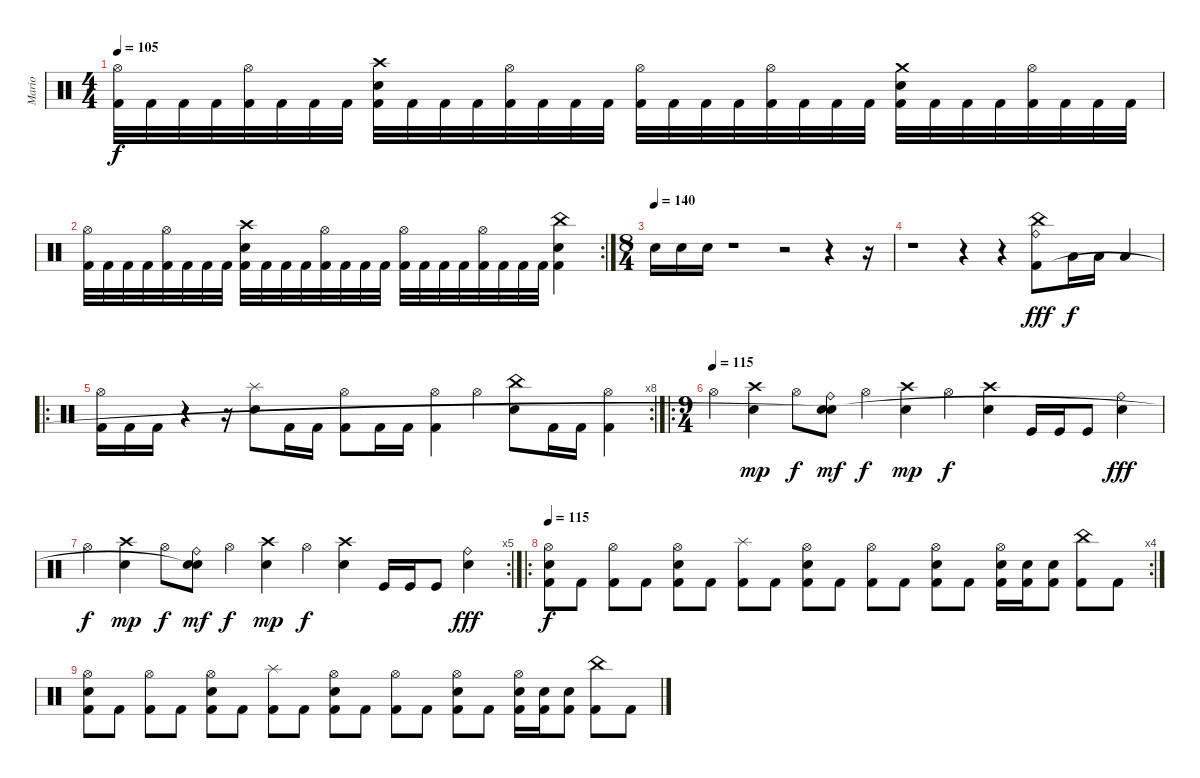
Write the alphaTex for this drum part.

\track ("Mario" "Mario") {instrument percussion}
\staff {score}
\articulation defaults
\ts (4 4)
\tempo 105
\clef neutral
\ks c
("Hi-Hat (open)" "Kick (hit) 2").32{dy f} "Kick (hit) 2".32 "Kick (hit) 2".32 "Kick (hit) 2".32 ("Hi-Hat (open)" "Kick (hit) 2").32 "Kick (hit) 2".32 "Kick (hit) 2".32 "Kick (hit) 2".32 ("Crash high (hit)" "Electric Snare (hit)" "Kick (hit) 2").32 "Kick (hit) 2".32 "Kick (hit) 2".32 "Kick (hit) 2".32 ("Hi-Hat (open)" "Kick (hit) 2").32 "Kick (hit) 2".32 "Kick (hit) 2".32 "Kick (hit) 2".32 ("Hi-Hat (open)" "Kick (hit) 2").32 "Kick (hit) 2".32 "Kick (hit) 2".32 "Kick (hit) 2".32 ("Hi-Hat (open)" "Kick (hit) 2").32 "Kick (hit) 2".32 "Kick (hit) 2".32 "Kick (hit) 2".32 ("Crash medium (hit)" "Electric Snare (hit)" "Kick (hit) 2").32 "Kick (hit) 2".32 "Kick (hit) 2".32 "Kick (hit) 2".32 ("Hi-Hat (open)" "Kick (hit) 2").32 "Kick (hit) 2".32 "Kick (hit) 2".32 "Kick (hit) 2".32 |
\rc 2
("Hi-Hat (open)" "Kick (hit) 2").32 "Kick (hit) 2".32 "Kick (hit) 2".32 "Kick (hit) 2".32 ("Hi-Hat (open)" "Kick (hit) 2").32 "Kick (hit) 2".32 "Kick (hit) 2".32 "Kick (hit) 2".32 ("Crash high (hit)" "Electric Snare (hit)" "Kick (hit) 2").32 "Kick (hit) 2".32 "Kick (hit) 2".32 "Kick (hit) 2".32 ("Hi-Hat (open)" "Kick (hit) 2").32 "Kick (hit) 2".32 "Kick (hit) 2".32 "Kick (hit) 2".32 ("Hi-Hat (open)" "Kick (hit) 2").32 "Kick (hit) 2".32 "Kick (hit) 2".32 "Kick (hit) 2".32 ("Hi-Hat (open)" "Kick (hit) 2").32 "Kick (hit) 2".32 "Kick (hit) 2".32 "Kick (hit) 2".32 ("China (hit)" "Electric Snare (hit)" "Kick (hit) 2").4 |
\ts (8 4)
\tempo (140)
"Electric Snare (hit)".16 "Electric Snare (hit)".16 "Electric Snare (hit)".16 r.1 r.2 r.4 r.16 |
r.1 r.4 r.4 ("China (hit)" "Ride (bell)" "Kick (hit) 2").8{dy fff} "Low Tom (hit)".16{dy f} "Low Tom (hit)".16 "Low Tom (hit)".4 |
\ro
\rc 8
("Hi-Hat (open)" "Kick (hit) 2").16 "Kick (hit) 2".16 "Kick (hit) 2".16 r.4 r.16 ("Splash (hit)" "Electric Snare (hit)").8 "Kick (hit) 2".16 "Kick (hit) 2".16 ("Hi-Hat (open)" "Kick (hit) 2").8 "Kick (hit) 2".16 "Kick (hit) 2".16 ("Hi-Hat (open)" "Kick (hit) 2").4 "Hi-Hat (open)".4 ("Electric Snare (hit)" "China (hit)").8 "Kick (hit) 2".16 "Kick (hit) 2".16 ("Hi-Hat (open)" "Kick (hit) 2").4 |
\ro
\ts (9 4)
\tempo 110
\tempo (115)
"Hi-Hat (open)".4 ("Crash high (hit)" "Electric Snare (hit)").4{dy mp} "Hi-Hat (open)".8{dy f} ("Ride (bell)" "Electric Snare (hit)" "Snare (hit)"{t}).8{dy mf} "Hi-Hat (open)".4{dy f} ("Crash high (hit)" "Electric Snare (hit)").4{dy mp} "Hi-Hat (open)".4{dy f} ("Crash high (hit)" "Electric Snare (hit)").4 "Kick (hit)".16 "Kick (hit)".16 "Kick (hit)".8 ("Ride (bell)" "Electric Snare (hit)").4{dy fff} |
\rc 5 "Hi-Hat (open)".4{dy f}
("Crash high (hit)" "Electric Snare (hit)").4{dy mp} "Hi-Hat (open)".8{dy f} ("Ride (bell)" "Electric Snare (hit)" "Snare (hit)"{t}).8{dy mf} "Hi-Hat (open)".4{dy f} ("Crash high (hit)" "Electric Snare (hit)").4{dy mp} "Hi-Hat (open)".4{dy f} ("Crash high (hit)" "Electric Snare (hit)").4 "Kick (hit)".16 "Kick (hit)".16 "Kick (hit)".8 ("Ride (bell)" "Electric Snare (hit)").4{dy fff} |
\ro
\rc 4
\tempo 115
("Hi-Hat (open)" "Electric Snare (hit)" "Kick (hit) 2").8{dy f} "Kick (hit) 2".8 ("Hi-Hat (open)" "Kick (hit) 2").8 "Kick (hit) 2".8 ("Hi-Hat (open)" "Electric Snare (hit)" "Kick (hit) 2").8 "Kick (hit) 2".8 ("Splash (hit)" "Kick (hit) 2").8 "Kick (hit) 2".8 ("Hi-Hat (open)" "Electric Snare (hit)" "Kick (hit) 2").8 "Kick (hit) 2".8 ("Hi-Hat (open)" "Kick (hit) 2").8 "Kick (hit) 2".8 ("Hi-Hat (open)" "Electric Snare (hit)" "Kick (hit) 2").8 "Kick (hit) 2".8 ("Hi-Hat (open)" "Electric Snare (hit)" "Kick (hit) 2").16 ("Electric Snare (hit)" "Kick (hit) 2").16 ("Electric Snare (hit)" "Kick (hit) 2").8 ("China (hit)" "Kick (hit) 2").8 "Kick (hit) 2".8 |
("Hi-Hat (open)" "Electric Snare (hit)" "Kick (hit) 2").8 "Kick (hit) 2".8 ("Hi-Hat (open)" "Kick (hit) 2").8 "Kick (hit) 2".8 ("Hi-Hat (open)" "Electric Snare (hit)" "Kick (hit) 2").8 "Kick (hit) 2".8 ("Splash (hit)" "Kick (hit) 2").8 "Kick (hit) 2".8 ("Hi-Hat (open)" "Electric Snare (hit)" "Kick (hit) 2").8 "Kick (hit) 2".8 ("Hi-Hat (open)" "Kick (hit) 2").8 "Kick (hit) 2".8 ("Hi-Hat (open)" "Electric Snare (hit)" "Kick (hit) 2").8 "Kick (hit) 2".8 ("Hi-Hat (open)" "Electric Snare (hit)" "Kick (hit) 2").16 ("Electric Snare (hit)" "Kick (hit) 2").16 ("Electric Snare (hit)" "Kick (hit) 2").8 ("China (hit)" "Kick (hit) 2").8 "Kick (hit) 2".8
